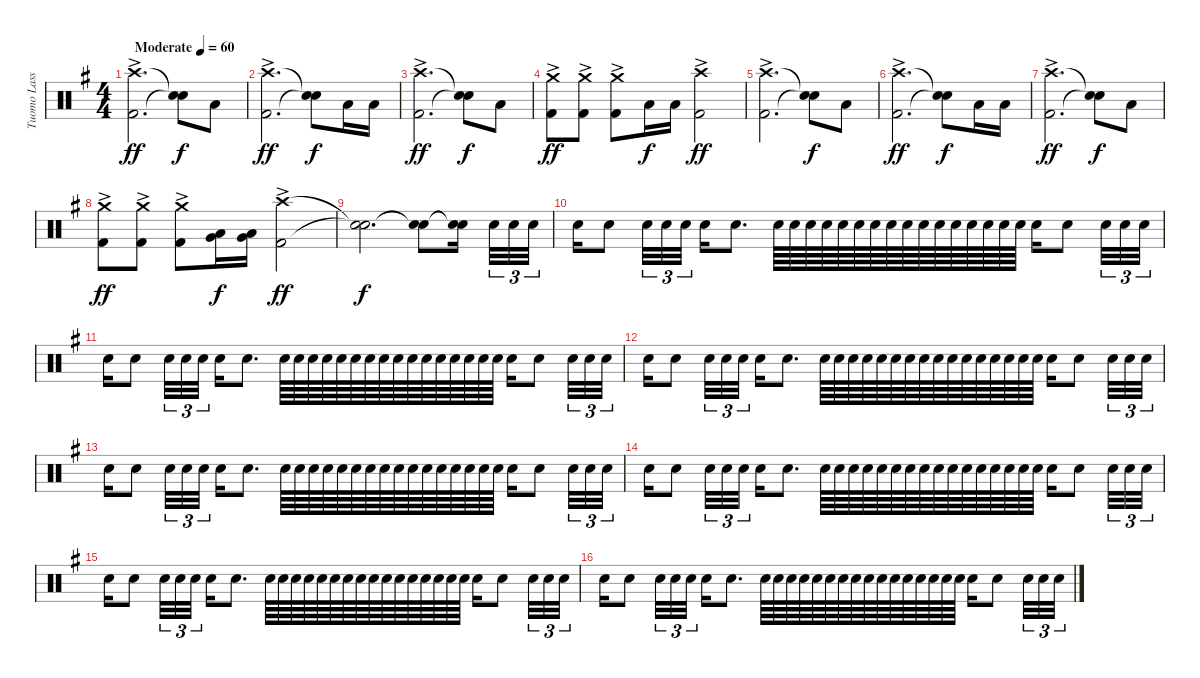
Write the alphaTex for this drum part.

\track ("Tuomo Lassila" "Tuomo Lass") {instrument percussion}
\staff {score}
\articulation defaults
\ts (4 4)
\tempo (60 "Moderate")
\clef neutral
\ks g
("Crash high (hit)"{ac} "Kick (hit) 2"{ac}).2{d dy ff} ("Snare (hit)"{t} "Snare (hit)"{t}).8{dy f} "Low Tom (hit)".8 |
("Crash high (hit)"{ac} "Kick (hit) 2"{ac}).2{d dy ff} ("Snare (hit)"{t} "Snare (hit)"{t}).8{dy f} "Low Tom (hit)".16 "Low Tom (hit)".16 |
("Crash high (hit)"{ac} "Kick (hit) 2"{ac}).2{d dy ff} ("Snare (hit)"{t} "Snare (hit)"{t}).8{dy f} "Low Tom (hit)".8 |
("Crash medium (hit)"{ac} "Kick (hit) 2"{ac}).8{dy ff} ("Crash medium (hit)"{ac} "Kick (hit) 2"{ac}).8 ("Crash medium (hit)"{ac} "Kick (hit) 2"{ac}).8 "Low Tom (hit)".16{dy f} "Low Tom (hit)".16 ("Crash high (hit)"{ac} "Kick (hit) 2"{ac}).2{dy ff} |
("Crash high (hit)"{ac} "Kick (hit) 2"{ac}).2{d} ("Snare (hit)"{t} "Snare (hit)"{t}).8{dy f} "Low Tom (hit)".8 |
("Crash high (hit)"{ac} "Kick (hit) 2"{ac}).2{d dy ff} ("Snare (hit)"{t} "Snare (hit)"{t}).8{dy f} "Low Tom (hit)".16 "Low Tom (hit)".16 |
("Crash high (hit)"{ac} "Kick (hit) 2"{ac}).2{d dy ff} ("Snare (hit)"{t} "Snare (hit)"{t}).8{dy f} "Low Tom (hit)".8 |
("Crash medium (hit)"{ac} "Kick (hit) 2"{ac}).8{dy ff} ("Crash medium (hit)"{ac} "Kick (hit) 2"{ac}).8 ("Crash medium (hit)"{ac} "Kick (hit) 2"{ac}).8 ("Very Low Tom (hit)" "Low Tom (hit)").16{dy f} ("Very Low Tom (hit)" "Low Tom (hit)").16 ("Crash high (hit)"{ac} "Kick (hit) 2"{ac}).2{dy ff} |
("Snare (hit)"{t} "Snare (hit)"{t}).2{d dy f} ("Snare (hit)"{t} "Snare (hit)"{t}).8 ("Snare (hit)"{t} "Electric Snare (hit)"{t}).16{beam splitsecondary} "Electric Snare (hit)".32{tu (3 2)} "Electric Snare (hit)".32{tu (3 2)} "Electric Snare (hit)".32{tu (3 2)} |
"Electric Snare (hit)".16 "Electric Snare (hit)".8 "Electric Snare (hit)".32{tu (3 2)} "Electric Snare (hit)".32{tu (3 2)} "Electric Snare (hit)".32{tu (3 2)} "Electric Snare (hit)".16 "Electric Snare (hit)".8{d} "Electric Snare (hit)".64 "Electric Snare (hit)".64 "Electric Snare (hit)".64 "Electric Snare (hit)".64 "Electric Snare (hit)".64 "Electric Snare (hit)".64 "Electric Snare (hit)".64 "Electric Snare (hit)".64 "Electric Snare (hit)".64 "Electric Snare (hit)".64 "Electric Snare (hit)".64 "Electric Snare (hit)".64 "Electric Snare (hit)".64 "Electric Snare (hit)".64 "Electric Snare (hit)".64 "Electric Snare (hit)".64 "Electric Snare (hit)".16 "Electric Snare (hit)".8 "Electric Snare (hit)".32{tu (3 2)} "Electric Snare (hit)".32{tu (3 2)} "Electric Snare (hit)".32{tu (3 2)} |
"Electric Snare (hit)".16 "Electric Snare (hit)".8 "Electric Snare (hit)".32{tu (3 2)} "Electric Snare (hit)".32{tu (3 2)} "Electric Snare (hit)".32{tu (3 2)} "Electric Snare (hit)".16 "Electric Snare (hit)".8{d} "Electric Snare (hit)".64 "Electric Snare (hit)".64 "Electric Snare (hit)".64 "Electric Snare (hit)".64 "Electric Snare (hit)".64 "Electric Snare (hit)".64 "Electric Snare (hit)".64 "Electric Snare (hit)".64 "Electric Snare (hit)".64 "Electric Snare (hit)".64 "Electric Snare (hit)".64 "Electric Snare (hit)".64 "Electric Snare (hit)".64 "Electric Snare (hit)".64 "Electric Snare (hit)".64 "Electric Snare (hit)".64 "Electric Snare (hit)".16 "Electric Snare (hit)".8 "Electric Snare (hit)".32{tu (3 2)} "Electric Snare (hit)".32{tu (3 2)} "Electric Snare (hit)".32{tu (3 2)} |
"Electric Snare (hit)".16 "Electric Snare (hit)".8 "Electric Snare (hit)".32{tu (3 2)} "Electric Snare (hit)".32{tu (3 2)} "Electric Snare (hit)".32{tu (3 2)} "Electric Snare (hit)".16 "Electric Snare (hit)".8{d} "Electric Snare (hit)".64 "Electric Snare (hit)".64 "Electric Snare (hit)".64 "Electric Snare (hit)".64 "Electric Snare (hit)".64 "Electric Snare (hit)".64 "Electric Snare (hit)".64 "Electric Snare (hit)".64 "Electric Snare (hit)".64 "Electric Snare (hit)".64 "Electric Snare (hit)".64 "Electric Snare (hit)".64 "Electric Snare (hit)".64 "Electric Snare (hit)".64 "Electric Snare (hit)".64 "Electric Snare (hit)".64 "Electric Snare (hit)".16 "Electric Snare (hit)".8 "Electric Snare (hit)".32{tu (3 2)} "Electric Snare (hit)".32{tu (3 2)} "Electric Snare (hit)".32{tu (3 2)} |
"Electric Snare (hit)".16 "Electric Snare (hit)".8 "Electric Snare (hit)".32{tu (3 2)} "Electric Snare (hit)".32{tu (3 2)} "Electric Snare (hit)".32{tu (3 2)} "Electric Snare (hit)".16 "Electric Snare (hit)".8{d} "Electric Snare (hit)".64 "Electric Snare (hit)".64 "Electric Snare (hit)".64 "Electric Snare (hit)".64 "Electric Snare (hit)".64 "Electric Snare (hit)".64 "Electric Snare (hit)".64 "Electric Snare (hit)".64 "Electric Snare (hit)".64 "Electric Snare (hit)".64 "Electric Snare (hit)".64 "Electric Snare (hit)".64 "Electric Snare (hit)".64 "Electric Snare (hit)".64 "Electric Snare (hit)".64 "Electric Snare (hit)".64 "Electric Snare (hit)".16 "Electric Snare (hit)".8 "Electric Snare (hit)".32{tu (3 2)} "Electric Snare (hit)".32{tu (3 2)} "Electric Snare (hit)".32{tu (3 2)} |
"Electric Snare (hit)".16 "Electric Snare (hit)".8 "Electric Snare (hit)".32{tu (3 2)} "Electric Snare (hit)".32{tu (3 2)} "Electric Snare (hit)".32{tu (3 2)} "Electric Snare (hit)".16 "Electric Snare (hit)".8{d} "Electric Snare (hit)".64 "Electric Snare (hit)".64 "Electric Snare (hit)".64 "Electric Snare (hit)".64 "Electric Snare (hit)".64 "Electric Snare (hit)".64 "Electric Snare (hit)".64 "Electric Snare (hit)".64 "Electric Snare (hit)".64 "Electric Snare (hit)".64 "Electric Snare (hit)".64 "Electric Snare (hit)".64 "Electric Snare (hit)".64 "Electric Snare (hit)".64 "Electric Snare (hit)".64 "Electric Snare (hit)".64 "Electric Snare (hit)".16 "Electric Snare (hit)".8 "Electric Snare (hit)".32{tu (3 2)} "Electric Snare (hit)".32{tu (3 2)} "Electric Snare (hit)".32{tu (3 2)} |
"Electric Snare (hit)".16 "Electric Snare (hit)".8 "Electric Snare (hit)".32{tu (3 2)} "Electric Snare (hit)".32{tu (3 2)} "Electric Snare (hit)".32{tu (3 2)} "Electric Snare (hit)".16 "Electric Snare (hit)".8{d} "Electric Snare (hit)".64 "Electric Snare (hit)".64 "Electric Snare (hit)".64 "Electric Snare (hit)".64 "Electric Snare (hit)".64 "Electric Snare (hit)".64 "Electric Snare (hit)".64 "Electric Snare (hit)".64 "Electric Snare (hit)".64 "Electric Snare (hit)".64 "Electric Snare (hit)".64 "Electric Snare (hit)".64 "Electric Snare (hit)".64 "Electric Snare (hit)".64 "Electric Snare (hit)".64 "Electric Snare (hit)".64 "Electric Snare (hit)".16 "Electric Snare (hit)".8 "Electric Snare (hit)".32{tu (3 2)} "Electric Snare (hit)".32{tu (3 2)} "Electric Snare (hit)".32{tu (3 2)} |
"Electric Snare (hit)".16 "Electric Snare (hit)".8 "Electric Snare (hit)".32{tu (3 2)} "Electric Snare (hit)".32{tu (3 2)} "Electric Snare (hit)".32{tu (3 2)} "Electric Snare (hit)".16 "Electric Snare (hit)".8{d} "Electric Snare (hit)".64 "Electric Snare (hit)".64 "Electric Snare (hit)".64 "Electric Snare (hit)".64 "Electric Snare (hit)".64 "Electric Snare (hit)".64 "Electric Snare (hit)".64 "Electric Snare (hit)".64 "Electric Snare (hit)".64 "Electric Snare (hit)".64 "Electric Snare (hit)".64 "Electric Snare (hit)".64 "Electric Snare (hit)".64 "Electric Snare (hit)".64 "Electric Snare (hit)".64 "Electric Snare (hit)".64 "Electric Snare (hit)".16 "Electric Snare (hit)".8 "Electric Snare (hit)".32{tu (3 2)} "Electric Snare (hit)".32{tu (3 2)} "Electric Snare (hit)".32{tu (3 2)}
